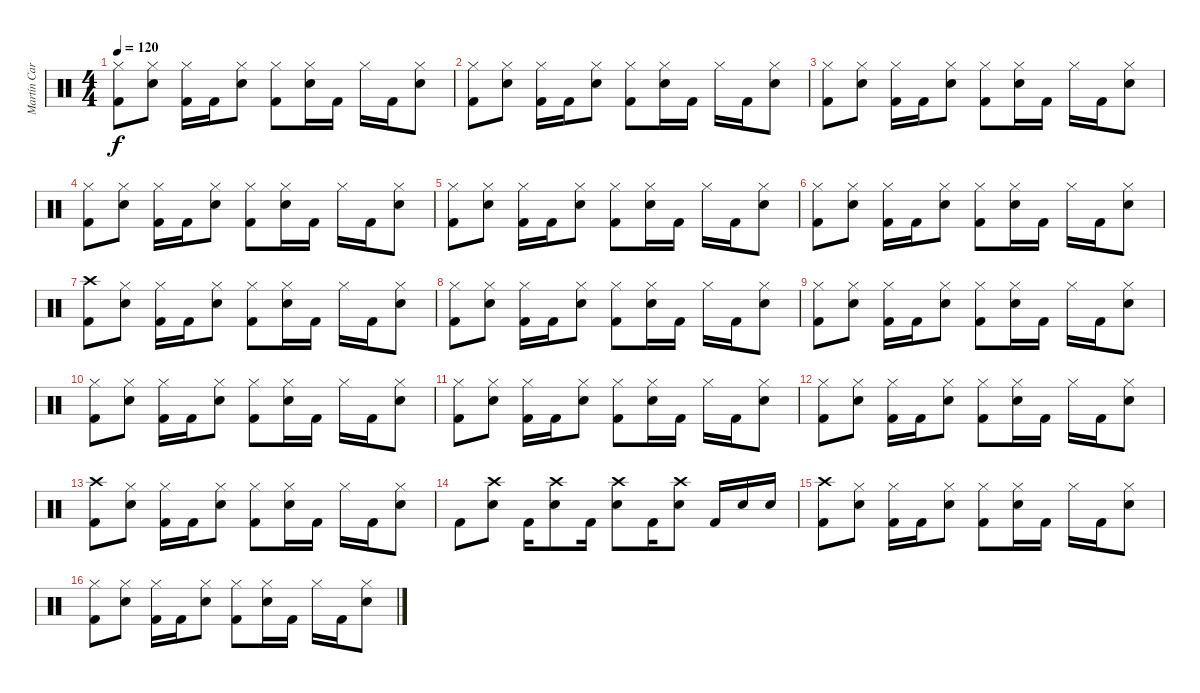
\track ("Martín Carrizo" "Martín Car") {instrument percussion}
\staff {score}
\articulation defaults
\ts (4 4)
\tempo 120
\clef neutral
\ks c
("Hi-Hat (closed)" "Kick (hit) 2").8{dy f} ("Hi-Hat (closed)" "Snare (hit) 2").8 ("Hi-Hat (closed)" "Kick (hit) 2").16 "Kick (hit) 2".16 ("Hi-Hat (closed)" "Snare (hit) 2").8 ("Hi-Hat (closed)" "Kick (hit) 2").8 ("Hi-Hat (closed)" "Snare (hit) 2").16 "Kick (hit) 2".16 "Hi-Hat (closed)".16 "Kick (hit) 2".16 ("Hi-Hat (closed)" "Snare (hit) 2").8 |
("Hi-Hat (closed)" "Kick (hit) 2").8 ("Hi-Hat (closed)" "Snare (hit) 2").8 ("Hi-Hat (closed)" "Kick (hit) 2").16 "Kick (hit) 2".16 ("Hi-Hat (closed)" "Snare (hit) 2").8 ("Hi-Hat (closed)" "Kick (hit) 2").8 ("Hi-Hat (closed)" "Snare (hit) 2").16 "Kick (hit) 2".16 "Hi-Hat (closed)".16 "Kick (hit) 2".16 ("Hi-Hat (closed)" "Snare (hit) 2").8 |
("Hi-Hat (closed)" "Kick (hit) 2").8 ("Hi-Hat (closed)" "Snare (hit) 2").8 ("Hi-Hat (closed)" "Kick (hit) 2").16 "Kick (hit) 2".16 ("Hi-Hat (closed)" "Snare (hit) 2").8 ("Hi-Hat (closed)" "Kick (hit) 2").8 ("Hi-Hat (closed)" "Snare (hit) 2").16 "Kick (hit) 2".16 "Hi-Hat (closed)".16 "Kick (hit) 2".16 ("Hi-Hat (closed)" "Snare (hit) 2").8 |
("Hi-Hat (closed)" "Kick (hit) 2").8 ("Hi-Hat (closed)" "Snare (hit) 2").8 ("Hi-Hat (closed)" "Kick (hit) 2").16 "Kick (hit) 2".16 ("Hi-Hat (closed)" "Snare (hit) 2").8 ("Hi-Hat (closed)" "Kick (hit) 2").8 ("Hi-Hat (closed)" "Snare (hit) 2").16 "Kick (hit) 2".16 "Hi-Hat (closed)".16 "Kick (hit) 2".16 ("Hi-Hat (closed)" "Snare (hit) 2").8 |
("Hi-Hat (closed)" "Kick (hit) 2").8 ("Hi-Hat (closed)" "Snare (hit) 2").8 ("Hi-Hat (closed)" "Kick (hit) 2").16 "Kick (hit) 2".16 ("Hi-Hat (closed)" "Snare (hit) 2").8 ("Hi-Hat (closed)" "Kick (hit) 2").8 ("Hi-Hat (closed)" "Snare (hit) 2").16 "Kick (hit) 2".16 "Hi-Hat (closed)".16 "Kick (hit) 2".16 ("Hi-Hat (closed)" "Snare (hit) 2").8 |
("Hi-Hat (closed)" "Kick (hit) 2").8 ("Hi-Hat (closed)" "Snare (hit) 2").8 ("Hi-Hat (closed)" "Kick (hit) 2").16 "Kick (hit) 2".16 ("Hi-Hat (closed)" "Snare (hit) 2").8 ("Hi-Hat (closed)" "Kick (hit) 2").8 ("Hi-Hat (closed)" "Snare (hit) 2").16 "Kick (hit) 2".16 "Hi-Hat (closed)".16 "Kick (hit) 2".16 ("Hi-Hat (closed)" "Snare (hit) 2").8 |
("Crash high (hit)" "Kick (hit) 2").8 ("Hi-Hat (closed)" "Snare (hit) 2").8 ("Hi-Hat (closed)" "Kick (hit) 2").16 "Kick (hit) 2".16 ("Hi-Hat (closed)" "Snare (hit) 2").8 ("Hi-Hat (closed)" "Kick (hit) 2").8 ("Hi-Hat (closed)" "Snare (hit) 2").16 "Kick (hit) 2".16 "Hi-Hat (closed)".16 "Kick (hit) 2".16 ("Hi-Hat (closed)" "Snare (hit) 2").8 |
("Hi-Hat (closed)" "Kick (hit) 2").8 ("Hi-Hat (closed)" "Snare (hit) 2").8 ("Hi-Hat (closed)" "Kick (hit) 2").16 "Kick (hit) 2".16 ("Hi-Hat (closed)" "Snare (hit) 2").8 ("Hi-Hat (closed)" "Kick (hit) 2").8 ("Hi-Hat (closed)" "Snare (hit) 2").16 "Kick (hit) 2".16 "Hi-Hat (closed)".16 "Kick (hit) 2".16 ("Hi-Hat (closed)" "Snare (hit) 2").8 |
("Hi-Hat (closed)" "Kick (hit) 2").8 ("Hi-Hat (closed)" "Snare (hit) 2").8 ("Hi-Hat (closed)" "Kick (hit) 2").16 "Kick (hit) 2".16 ("Hi-Hat (closed)" "Snare (hit) 2").8 ("Hi-Hat (closed)" "Kick (hit) 2").8 ("Hi-Hat (closed)" "Snare (hit) 2").16 "Kick (hit) 2".16 "Hi-Hat (closed)".16 "Kick (hit) 2".16 ("Hi-Hat (closed)" "Snare (hit) 2").8 |
("Hi-Hat (closed)" "Kick (hit) 2").8 ("Hi-Hat (closed)" "Snare (hit) 2").8 ("Hi-Hat (closed)" "Kick (hit) 2").16 "Kick (hit) 2".16 ("Hi-Hat (closed)" "Snare (hit) 2").8 ("Hi-Hat (closed)" "Kick (hit) 2").8 ("Hi-Hat (closed)" "Snare (hit) 2").16 "Kick (hit) 2".16 "Hi-Hat (closed)".16 "Kick (hit) 2".16 ("Hi-Hat (closed)" "Snare (hit) 2").8 |
("Hi-Hat (closed)" "Kick (hit) 2").8 ("Hi-Hat (closed)" "Snare (hit) 2").8 ("Hi-Hat (closed)" "Kick (hit) 2").16 "Kick (hit) 2".16 ("Hi-Hat (closed)" "Snare (hit) 2").8 ("Hi-Hat (closed)" "Kick (hit) 2").8 ("Hi-Hat (closed)" "Snare (hit) 2").16 "Kick (hit) 2".16 "Hi-Hat (closed)".16 "Kick (hit) 2".16 ("Hi-Hat (closed)" "Snare (hit) 2").8 |
("Hi-Hat (closed)" "Kick (hit) 2").8 ("Hi-Hat (closed)" "Snare (hit) 2").8 ("Hi-Hat (closed)" "Kick (hit) 2").16 "Kick (hit) 2".16 ("Hi-Hat (closed)" "Snare (hit) 2").8 ("Hi-Hat (closed)" "Kick (hit) 2").8 ("Hi-Hat (closed)" "Snare (hit) 2").16 "Kick (hit) 2".16 "Hi-Hat (closed)".16 "Kick (hit) 2".16 ("Hi-Hat (closed)" "Snare (hit) 2").8 |
("Crash high (hit)" "Kick (hit) 2").8 ("Hi-Hat (closed)" "Snare (hit) 2").8 ("Hi-Hat (closed)" "Kick (hit) 2").16 "Kick (hit) 2".16 ("Hi-Hat (closed)" "Snare (hit) 2").8 ("Hi-Hat (closed)" "Kick (hit) 2").8 ("Hi-Hat (closed)" "Snare (hit) 2").16 "Kick (hit) 2".16 "Hi-Hat (closed)".16 "Kick (hit) 2".16 ("Hi-Hat (closed)" "Snare (hit) 2").8 |
"Kick (hit) 2".8 ("Snare (hit) 2" "Crash high (hit)").8 "Kick (hit) 2".16 ("Snare (hit) 2" "Crash high (hit)").8 "Kick (hit) 2".16 ("Snare (hit) 2" "Crash high (hit)").8 "Kick (hit) 2".16 ("Snare (hit) 2" "Crash high (hit)").8 "Kick (hit) 2".16 "Snare (hit) 2".16 "Snare (hit) 2".16 |
("Crash high (hit)" "Kick (hit) 2").8 ("Hi-Hat (closed)" "Snare (hit) 2").8 ("Hi-Hat (closed)" "Kick (hit) 2").16 "Kick (hit) 2".16 ("Hi-Hat (closed)" "Snare (hit) 2").8 ("Hi-Hat (closed)" "Kick (hit) 2").8 ("Hi-Hat (closed)" "Snare (hit) 2").16 "Kick (hit) 2".16 "Hi-Hat (closed)".16 "Kick (hit) 2".16 ("Hi-Hat (closed)" "Snare (hit) 2").8 |
("Hi-Hat (closed)" "Kick (hit) 2").8 ("Hi-Hat (closed)" "Snare (hit) 2").8 ("Hi-Hat (closed)" "Kick (hit) 2").16 "Kick (hit) 2".16 ("Hi-Hat (closed)" "Snare (hit) 2").8 ("Hi-Hat (closed)" "Kick (hit) 2").8 ("Hi-Hat (closed)" "Snare (hit) 2").16 "Kick (hit) 2".16 "Hi-Hat (closed)".16 "Kick (hit) 2".16 ("Hi-Hat (closed)" "Snare (hit) 2").8
